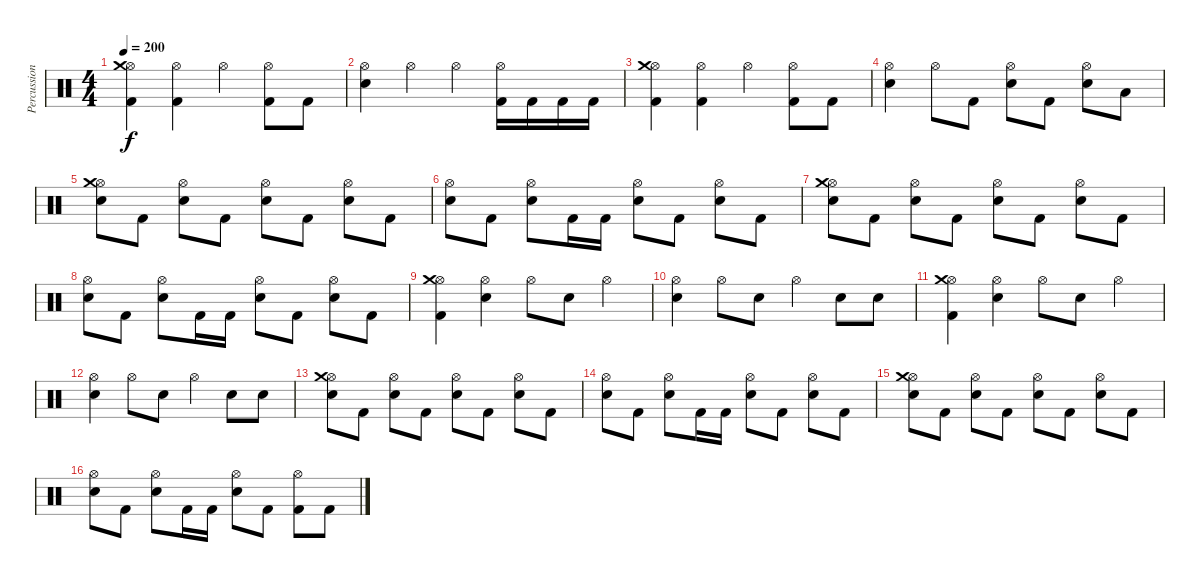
\track ("Percussions" "Percussion") {instrument percussion}
\staff {score}
\articulation defaults
\ts (4 4)
\tempo 200
\clef neutral
\ks c
("Hi-Hat (open)" "Crash medium (hit)" "Kick (hit) 2").4{dy f} ("Hi-Hat (open)" "Kick (hit) 2").4 "Hi-Hat (open)".4 ("Hi-Hat (open)" "Kick (hit) 2").8 "Kick (hit) 2".8 |
("Hi-Hat (open)" "Electric Snare (hit)").4 "Hi-Hat (open)".4 "Hi-Hat (open)".4 ("Hi-Hat (open)" "Kick (hit) 2").16 "Kick (hit) 2".16 "Kick (hit) 2".16 "Kick (hit) 2".16 |
("Hi-Hat (open)" "Crash medium (hit)" "Kick (hit) 2").4 ("Hi-Hat (open)" "Kick (hit) 2").4 "Hi-Hat (open)".4 ("Hi-Hat (open)" "Kick (hit) 2").8 "Kick (hit) 2".8 |
("Hi-Hat (open)" "Electric Snare (hit)").4 "Hi-Hat (open)".8 "Kick (hit) 2".8 ("Hi-Hat (open)" "Electric Snare (hit)").8 "Kick (hit) 2".8 ("Hi-Hat (open)" "Electric Snare (hit)").8 "Low Tom (hit)".8 |
("Hi-Hat (open)" "Crash medium (hit)" "Electric Snare (hit)").8 "Kick (hit) 2".8 ("Hi-Hat (open)" "Electric Snare (hit)").8 "Kick (hit) 2".8 ("Hi-Hat (open)" "Electric Snare (hit)").8 "Kick (hit) 2".8 ("Hi-Hat (open)" "Electric Snare (hit)").8 "Kick (hit) 2".8 |
("Hi-Hat (open)" "Electric Snare (hit)").8 "Kick (hit) 2".8 ("Hi-Hat (open)" "Electric Snare (hit)").8 "Kick (hit) 2".16 "Kick (hit) 2".16 ("Hi-Hat (open)" "Electric Snare (hit)").8 "Kick (hit) 2".8 ("Hi-Hat (open)" "Electric Snare (hit)").8 "Kick (hit) 2".8 |
("Hi-Hat (open)" "Crash medium (hit)" "Electric Snare (hit)").8 "Kick (hit) 2".8 ("Hi-Hat (open)" "Electric Snare (hit)").8 "Kick (hit) 2".8 ("Hi-Hat (open)" "Electric Snare (hit)").8 "Kick (hit) 2".8 ("Hi-Hat (open)" "Electric Snare (hit)").8 "Kick (hit) 2".8 |
("Hi-Hat (open)" "Electric Snare (hit)").8 "Kick (hit) 2".8 ("Hi-Hat (open)" "Electric Snare (hit)").8 "Kick (hit) 2".16 "Kick (hit) 2".16 ("Hi-Hat (open)" "Electric Snare (hit)").8 "Kick (hit) 2".8 ("Hi-Hat (open)" "Electric Snare (hit)").8 "Kick (hit) 2".8 |
("Hi-Hat (open)" "Crash medium (hit)" "Kick (hit) 2").4 ("Hi-Hat (open)" "Electric Snare (hit)").4 "Hi-Hat (open)".8 "Electric Snare (hit)".8 "Hi-Hat (open)".4 |
("Hi-Hat (open)" "Electric Snare (hit)").4 "Hi-Hat (open)".8 "Electric Snare (hit)".8 "Hi-Hat (open)".4 "Electric Snare (hit)".8 "Electric Snare (hit)".8 |
("Hi-Hat (open)" "Crash medium (hit)" "Kick (hit) 2").4 ("Hi-Hat (open)" "Electric Snare (hit)").4 "Hi-Hat (open)".8 "Electric Snare (hit)".8 "Hi-Hat (open)".4 |
("Hi-Hat (open)" "Electric Snare (hit)").4 "Hi-Hat (open)".8 "Electric Snare (hit)".8 "Hi-Hat (open)".4 "Electric Snare (hit)".8 "Electric Snare (hit)".8 |
("Hi-Hat (open)" "Crash medium (hit)" "Electric Snare (hit)").8 "Kick (hit) 2".8 ("Hi-Hat (open)" "Electric Snare (hit)").8 "Kick (hit) 2".8 ("Hi-Hat (open)" "Electric Snare (hit)").8 "Kick (hit) 2".8 ("Hi-Hat (open)" "Electric Snare (hit)").8 "Kick (hit) 2".8 |
("Hi-Hat (open)" "Electric Snare (hit)").8 "Kick (hit) 2".8 ("Hi-Hat (open)" "Electric Snare (hit)").8 "Kick (hit) 2".16 "Kick (hit) 2".16 ("Hi-Hat (open)" "Electric Snare (hit)").8 "Kick (hit) 2".8 ("Hi-Hat (open)" "Electric Snare (hit)").8 "Kick (hit) 2".8 |
("Hi-Hat (open)" "Crash medium (hit)" "Electric Snare (hit)").8 "Kick (hit) 2".8 ("Hi-Hat (open)" "Electric Snare (hit)").8 "Kick (hit) 2".8 ("Hi-Hat (open)" "Electric Snare (hit)").8 "Kick (hit) 2".8 ("Hi-Hat (open)" "Electric Snare (hit)").8 "Kick (hit) 2".8 |
("Hi-Hat (open)" "Electric Snare (hit)").8 "Kick (hit) 2".8 ("Hi-Hat (open)" "Electric Snare (hit)").8 "Kick (hit) 2".16 "Kick (hit) 2".16 ("Hi-Hat (open)" "Electric Snare (hit)").8 "Kick (hit) 2".8 ("Hi-Hat (open)" "Kick (hit) 2").8 "Kick (hit) 2".8
